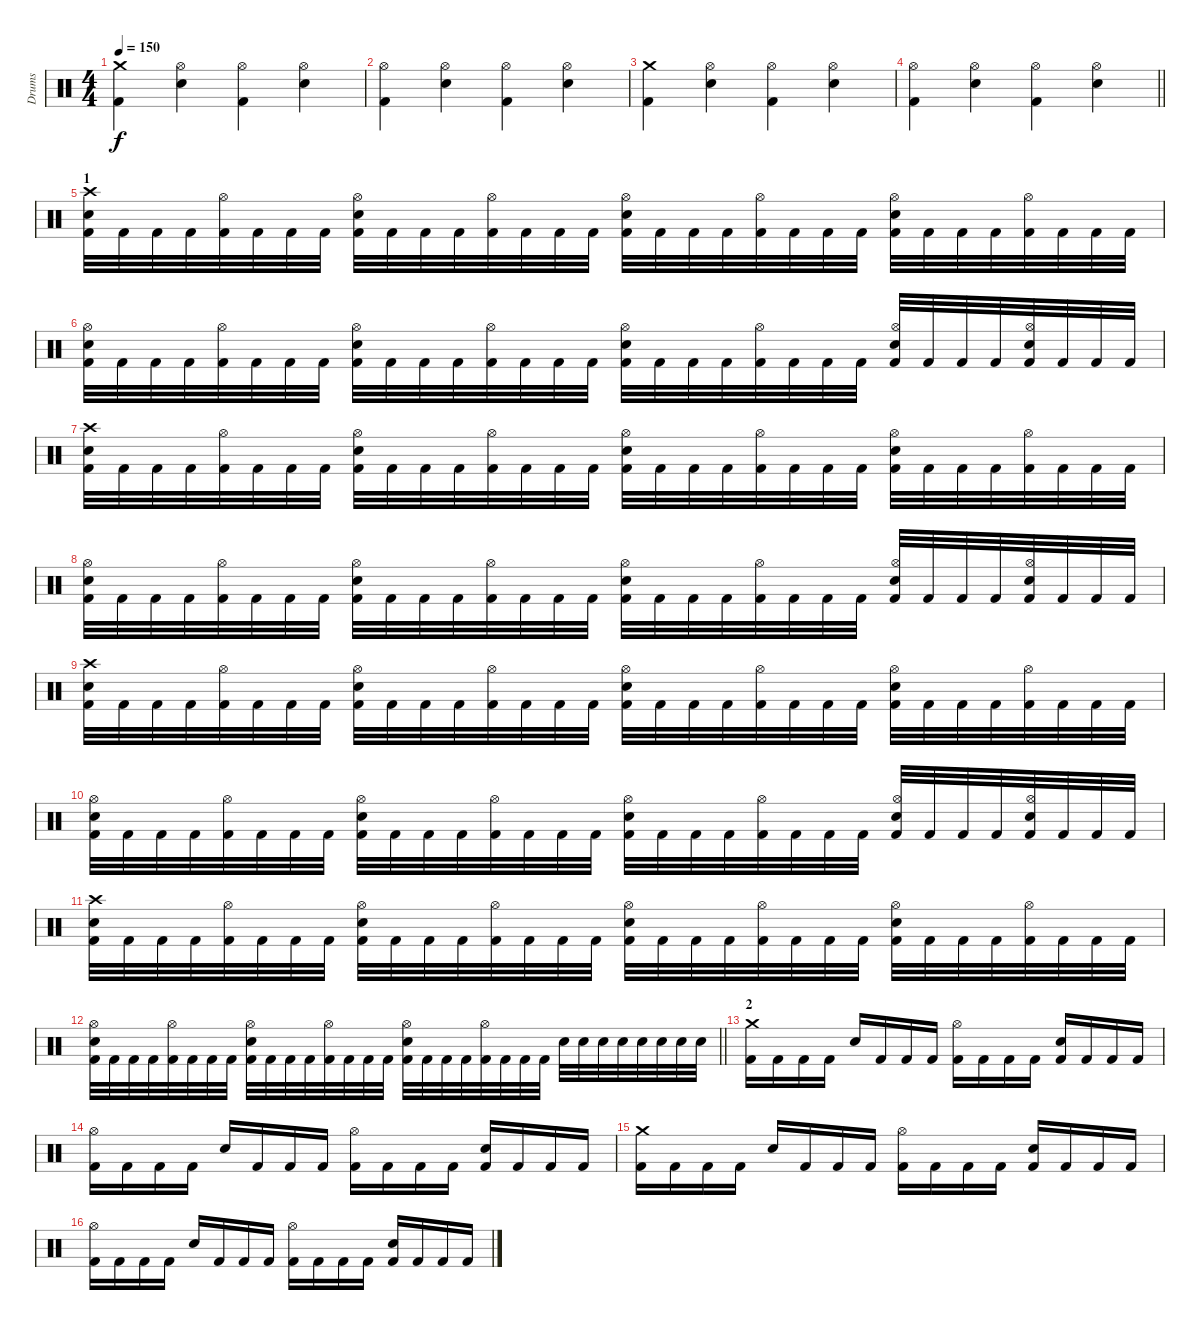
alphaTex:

\track ("Drums" "Drums") {instrument percussion}
\staff {score}
\articulation defaults
\ts (4 4)
\tempo 150
\clef neutral
\ks c
("Crash medium (hit)" "Kick (hit) 2").4{dy f} ("Hi-Hat (open)" "Snare (hit) 2").4 ("Hi-Hat (open)" "Kick (hit) 2").4 ("Hi-Hat (open)" "Snare (hit) 2").4 |
("Hi-Hat (open)" "Kick (hit) 2").4 ("Hi-Hat (open)" "Snare (hit) 2").4 ("Hi-Hat (open)" "Kick (hit) 2").4 ("Hi-Hat (open)" "Snare (hit) 2").4 |
("Crash medium (hit)" "Kick (hit) 2").4 ("Hi-Hat (open)" "Snare (hit) 2").4 ("Hi-Hat (open)" "Kick (hit) 2").4 ("Hi-Hat (open)" "Snare (hit) 2").4 |
\barLineRight lightlight
("Hi-Hat (open)" "Kick (hit) 2").4 ("Hi-Hat (open)" "Snare (hit) 2").4 ("Hi-Hat (open)" "Kick (hit) 2").4 ("Hi-Hat (open)" "Snare (hit) 2").4 |
\section ("" "1")
("Crash high (hit)" "Snare (hit) 2" "Kick (hit) 2").32 "Kick (hit) 2".32 "Kick (hit) 2".32 "Kick (hit) 2".32 ("Hi-Hat (open)" "Kick (hit) 2").32 "Kick (hit) 2".32 "Kick (hit) 2".32 "Kick (hit) 2".32 ("Hi-Hat (open)" "Snare (hit) 2" "Kick (hit) 2").32 "Kick (hit) 2".32 "Kick (hit) 2".32 "Kick (hit) 2".32 ("Hi-Hat (open)" "Kick (hit) 2").32 "Kick (hit) 2".32 "Kick (hit) 2".32 "Kick (hit) 2".32 ("Hi-Hat (open)" "Snare (hit) 2" "Kick (hit) 2").32 "Kick (hit) 2".32 "Kick (hit) 2".32 "Kick (hit) 2".32 ("Hi-Hat (open)" "Kick (hit) 2").32 "Kick (hit) 2".32 "Kick (hit) 2".32 "Kick (hit) 2".32 ("Hi-Hat (open)" "Snare (hit) 2" "Kick (hit) 2").32 "Kick (hit) 2".32 "Kick (hit) 2".32 "Kick (hit) 2".32 ("Hi-Hat (open)" "Kick (hit) 2").32 "Kick (hit) 2".32 "Kick (hit) 2".32 "Kick (hit) 2".32 |
("Hi-Hat (open)" "Snare (hit) 2" "Kick (hit) 2").32 "Kick (hit) 2".32 "Kick (hit) 2".32 "Kick (hit) 2".32 ("Hi-Hat (open)" "Kick (hit) 2").32 "Kick (hit) 2".32 "Kick (hit) 2".32 "Kick (hit) 2".32 ("Hi-Hat (open)" "Snare (hit) 2" "Kick (hit) 2").32 "Kick (hit) 2".32 "Kick (hit) 2".32 "Kick (hit) 2".32 ("Hi-Hat (open)" "Kick (hit) 2").32 "Kick (hit) 2".32 "Kick (hit) 2".32 "Kick (hit) 2".32 ("Hi-Hat (open)" "Snare (hit) 2" "Kick (hit) 2").32 "Kick (hit) 2".32 "Kick (hit) 2".32 "Kick (hit) 2".32 ("Hi-Hat (open)" "Kick (hit) 2").32 "Kick (hit) 2".32 "Kick (hit) 2".32 "Kick (hit) 2".32 ("Hi-Hat (open)" "Snare (hit) 2" "Kick (hit) 2").32 "Kick (hit) 2".32 "Kick (hit) 2".32 "Kick (hit) 2".32 ("Hi-Hat (open)" "Snare (hit) 2" "Kick (hit) 2").32 "Kick (hit) 2".32 "Kick (hit) 2".32 "Kick (hit) 2".32 |
("Crash high (hit)" "Snare (hit) 2" "Kick (hit) 2").32 "Kick (hit) 2".32 "Kick (hit) 2".32 "Kick (hit) 2".32 ("Hi-Hat (open)" "Kick (hit) 2").32 "Kick (hit) 2".32 "Kick (hit) 2".32 "Kick (hit) 2".32 ("Hi-Hat (open)" "Snare (hit) 2" "Kick (hit) 2").32 "Kick (hit) 2".32 "Kick (hit) 2".32 "Kick (hit) 2".32 ("Hi-Hat (open)" "Kick (hit) 2").32 "Kick (hit) 2".32 "Kick (hit) 2".32 "Kick (hit) 2".32 ("Hi-Hat (open)" "Snare (hit) 2" "Kick (hit) 2").32 "Kick (hit) 2".32 "Kick (hit) 2".32 "Kick (hit) 2".32 ("Hi-Hat (open)" "Kick (hit) 2").32 "Kick (hit) 2".32 "Kick (hit) 2".32 "Kick (hit) 2".32 ("Hi-Hat (open)" "Snare (hit) 2" "Kick (hit) 2").32 "Kick (hit) 2".32 "Kick (hit) 2".32 "Kick (hit) 2".32 ("Hi-Hat (open)" "Kick (hit) 2").32 "Kick (hit) 2".32 "Kick (hit) 2".32 "Kick (hit) 2".32 |
("Hi-Hat (open)" "Snare (hit) 2" "Kick (hit) 2").32 "Kick (hit) 2".32 "Kick (hit) 2".32 "Kick (hit) 2".32 ("Hi-Hat (open)" "Kick (hit) 2").32 "Kick (hit) 2".32 "Kick (hit) 2".32 "Kick (hit) 2".32 ("Hi-Hat (open)" "Snare (hit) 2" "Kick (hit) 2").32 "Kick (hit) 2".32 "Kick (hit) 2".32 "Kick (hit) 2".32 ("Hi-Hat (open)" "Kick (hit) 2").32 "Kick (hit) 2".32 "Kick (hit) 2".32 "Kick (hit) 2".32 ("Hi-Hat (open)" "Snare (hit) 2" "Kick (hit) 2").32 "Kick (hit) 2".32 "Kick (hit) 2".32 "Kick (hit) 2".32 ("Hi-Hat (open)" "Kick (hit) 2").32 "Kick (hit) 2".32 "Kick (hit) 2".32 "Kick (hit) 2".32 ("Hi-Hat (open)" "Snare (hit) 2" "Kick (hit) 2").32 "Kick (hit) 2".32 "Kick (hit) 2".32 "Kick (hit) 2".32 ("Hi-Hat (open)" "Snare (hit) 2" "Kick (hit) 2").32 "Kick (hit) 2".32 "Kick (hit) 2".32 "Kick (hit) 2".32 |
("Crash high (hit)" "Snare (hit) 2" "Kick (hit) 2").32 "Kick (hit) 2".32 "Kick (hit) 2".32 "Kick (hit) 2".32 ("Hi-Hat (open)" "Kick (hit) 2").32 "Kick (hit) 2".32 "Kick (hit) 2".32 "Kick (hit) 2".32 ("Hi-Hat (open)" "Snare (hit) 2" "Kick (hit) 2").32 "Kick (hit) 2".32 "Kick (hit) 2".32 "Kick (hit) 2".32 ("Hi-Hat (open)" "Kick (hit) 2").32 "Kick (hit) 2".32 "Kick (hit) 2".32 "Kick (hit) 2".32 ("Hi-Hat (open)" "Snare (hit) 2" "Kick (hit) 2").32 "Kick (hit) 2".32 "Kick (hit) 2".32 "Kick (hit) 2".32 ("Hi-Hat (open)" "Kick (hit) 2").32 "Kick (hit) 2".32 "Kick (hit) 2".32 "Kick (hit) 2".32 ("Hi-Hat (open)" "Snare (hit) 2" "Kick (hit) 2").32 "Kick (hit) 2".32 "Kick (hit) 2".32 "Kick (hit) 2".32 ("Hi-Hat (open)" "Kick (hit) 2").32 "Kick (hit) 2".32 "Kick (hit) 2".32 "Kick (hit) 2".32 |
("Hi-Hat (open)" "Snare (hit) 2" "Kick (hit) 2").32 "Kick (hit) 2".32 "Kick (hit) 2".32 "Kick (hit) 2".32 ("Hi-Hat (open)" "Kick (hit) 2").32 "Kick (hit) 2".32 "Kick (hit) 2".32 "Kick (hit) 2".32 ("Hi-Hat (open)" "Snare (hit) 2" "Kick (hit) 2").32 "Kick (hit) 2".32 "Kick (hit) 2".32 "Kick (hit) 2".32 ("Hi-Hat (open)" "Kick (hit) 2").32 "Kick (hit) 2".32 "Kick (hit) 2".32 "Kick (hit) 2".32 ("Hi-Hat (open)" "Snare (hit) 2" "Kick (hit) 2").32 "Kick (hit) 2".32 "Kick (hit) 2".32 "Kick (hit) 2".32 ("Hi-Hat (open)" "Kick (hit) 2").32 "Kick (hit) 2".32 "Kick (hit) 2".32 "Kick (hit) 2".32 ("Hi-Hat (open)" "Snare (hit) 2" "Kick (hit) 2").32 "Kick (hit) 2".32 "Kick (hit) 2".32 "Kick (hit) 2".32 ("Hi-Hat (open)" "Snare (hit) 2" "Kick (hit) 2").32 "Kick (hit) 2".32 "Kick (hit) 2".32 "Kick (hit) 2".32 |
("Crash high (hit)" "Snare (hit) 2" "Kick (hit) 2").32 "Kick (hit) 2".32 "Kick (hit) 2".32 "Kick (hit) 2".32 ("Hi-Hat (open)" "Kick (hit) 2").32 "Kick (hit) 2".32 "Kick (hit) 2".32 "Kick (hit) 2".32 ("Hi-Hat (open)" "Snare (hit) 2" "Kick (hit) 2").32 "Kick (hit) 2".32 "Kick (hit) 2".32 "Kick (hit) 2".32 ("Hi-Hat (open)" "Kick (hit) 2").32 "Kick (hit) 2".32 "Kick (hit) 2".32 "Kick (hit) 2".32 ("Hi-Hat (open)" "Snare (hit) 2" "Kick (hit) 2").32 "Kick (hit) 2".32 "Kick (hit) 2".32 "Kick (hit) 2".32 ("Hi-Hat (open)" "Kick (hit) 2").32 "Kick (hit) 2".32 "Kick (hit) 2".32 "Kick (hit) 2".32 ("Hi-Hat (open)" "Snare (hit) 2" "Kick (hit) 2").32 "Kick (hit) 2".32 "Kick (hit) 2".32 "Kick (hit) 2".32 ("Hi-Hat (open)" "Kick (hit) 2").32 "Kick (hit) 2".32 "Kick (hit) 2".32 "Kick (hit) 2".32 |
\barLineRight lightlight
("Hi-Hat (open)" "Snare (hit) 2" "Kick (hit) 2").32 "Kick (hit) 2".32 "Kick (hit) 2".32 "Kick (hit) 2".32 ("Hi-Hat (open)" "Kick (hit) 2").32 "Kick (hit) 2".32 "Kick (hit) 2".32 "Kick (hit) 2".32 ("Hi-Hat (open)" "Snare (hit) 2" "Kick (hit) 2").32 "Kick (hit) 2".32 "Kick (hit) 2".32 "Kick (hit) 2".32 ("Hi-Hat (open)" "Kick (hit) 2").32 "Kick (hit) 2".32 "Kick (hit) 2".32 "Kick (hit) 2".32 ("Hi-Hat (open)" "Snare (hit) 2" "Kick (hit) 2").32 "Kick (hit) 2".32 "Kick (hit) 2".32 "Kick (hit) 2".32 ("Hi-Hat (open)" "Kick (hit) 2").32 "Kick (hit) 2".32 "Kick (hit) 2".32 "Kick (hit) 2".32 "Snare (hit) 2".32 "Snare (hit) 2".32 "Snare (hit) 2".32 "Snare (hit) 2".32 "Snare (hit) 2".32 "Snare (hit) 2".32 "Snare (hit) 2".32 "Snare (hit) 2".32 |
\section ("" "2")
("Crash medium (hit)" "Kick (hit) 2").16 "Kick (hit) 2".16 "Kick (hit) 2".16 "Kick (hit) 2".16 "Snare (hit) 2".16 "Kick (hit) 2".16 "Kick (hit) 2".16 "Kick (hit) 2".16 ("Hi-Hat (open)" "Kick (hit) 2").16 "Kick (hit) 2".16 "Kick (hit) 2".16 "Kick (hit) 2".16 ("Snare (hit) 2" "Kick (hit) 2").16 "Kick (hit) 2".16 "Kick (hit) 2".16 "Kick (hit) 2".16 |
("Hi-Hat (open)" "Kick (hit) 2").16 "Kick (hit) 2".16 "Kick (hit) 2".16 "Kick (hit) 2".16 "Snare (hit) 2".16 "Kick (hit) 2".16 "Kick (hit) 2".16 "Kick (hit) 2".16 ("Hi-Hat (open)" "Kick (hit) 2").16 "Kick (hit) 2".16 "Kick (hit) 2".16 "Kick (hit) 2".16 ("Snare (hit) 2" "Kick (hit) 2").16 "Kick (hit) 2".16 "Kick (hit) 2".16 "Kick (hit) 2".16 |
("Crash medium (hit)" "Kick (hit) 2").16 "Kick (hit) 2".16 "Kick (hit) 2".16 "Kick (hit) 2".16 "Snare (hit) 2".16 "Kick (hit) 2".16 "Kick (hit) 2".16 "Kick (hit) 2".16 ("Hi-Hat (open)" "Kick (hit) 2").16 "Kick (hit) 2".16 "Kick (hit) 2".16 "Kick (hit) 2".16 ("Snare (hit) 2" "Kick (hit) 2").16 "Kick (hit) 2".16 "Kick (hit) 2".16 "Kick (hit) 2".16 |
("Hi-Hat (open)" "Kick (hit) 2").16 "Kick (hit) 2".16 "Kick (hit) 2".16 "Kick (hit) 2".16 "Snare (hit) 2".16 "Kick (hit) 2".16 "Kick (hit) 2".16 "Kick (hit) 2".16 ("Hi-Hat (open)" "Kick (hit) 2").16 "Kick (hit) 2".16 "Kick (hit) 2".16 "Kick (hit) 2".16 ("Snare (hit) 2" "Kick (hit) 2").16 "Kick (hit) 2".16 "Kick (hit) 2".16 "Kick (hit) 2".16
